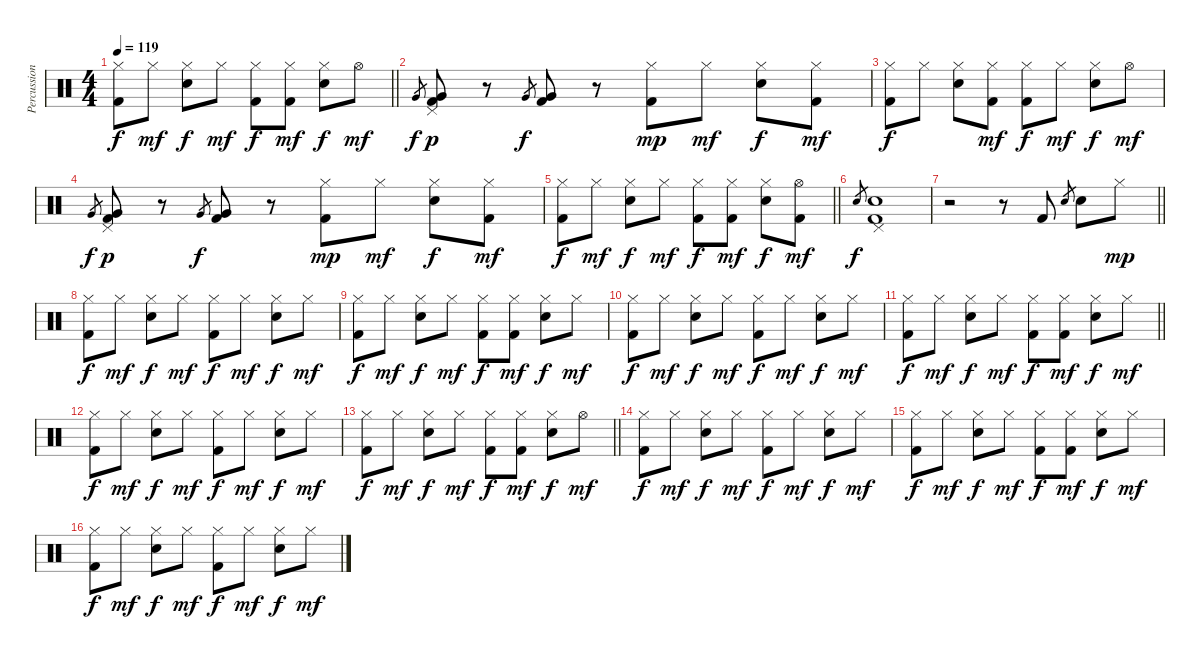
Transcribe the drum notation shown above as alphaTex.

\track ("Percussion" "Percussion") {instrument percussion}
\staff {score}
\articulation defaults
\ts (4 4)
\tempo 119
\clef neutral
\barLineRight lightlight
\ks c
("Hi-Hat (closed)" "Kick (hit) 2").8{dy f} "Hi-Hat (closed)".8{dy mf} ("Hi-Hat (closed)" "Snare (hit) 2").8{dy f} "Hi-Hat (closed)".8{dy mf} ("Hi-Hat (closed)" "Kick (hit) 2").8{dy f} ("Hi-Hat (closed)" "Kick (hit) 2").8{dy mf} ("Hi-Hat (closed)" "Snare (hit) 2").8{dy f} "Hi-Hat (open)".8{dy mf} |
"Very Low Tom (hit)".8{gr dy f} ("Pedal Hi-Hat (hit)" "Very Low Tom (hit)" "Kick (hit) 2").8{dy p} r.8 "Very Low Tom (hit)".8{gr dy f} ("Very Low Tom (hit)" "Kick (hit) 2").8 r.8 ("Hi-Hat (closed)" "Kick (hit) 2").8{dy mp} "Hi-Hat (closed)".8{dy mf} ("Hi-Hat (closed)" "Snare (hit) 2").8{dy f} ("Hi-Hat (closed)" "Kick (hit) 2").8{dy mf} |
("Hi-Hat (closed)" "Kick (hit) 2").8{dy f} "Hi-Hat (closed)".8 ("Hi-Hat (closed)" "Snare (hit) 2").8 ("Hi-Hat (closed)" "Kick (hit) 2").8{dy mf} ("Hi-Hat (closed)" "Kick (hit) 2").8{dy f} "Hi-Hat (closed)".8{dy mf} ("Hi-Hat (closed)" "Snare (hit) 2").8{dy f} "Hi-Hat (open)".8{dy mf} |
"Very Low Tom (hit)".8{gr dy f} ("Pedal Hi-Hat (hit)" "Very Low Tom (hit)" "Kick (hit) 2").8{dy p} r.8 "Very Low Tom (hit)".8{gr dy f} ("Very Low Tom (hit)" "Kick (hit) 2").8 r.8 ("Hi-Hat (closed)" "Kick (hit) 2").8{dy mp} "Hi-Hat (closed)".8{dy mf} ("Hi-Hat (closed)" "Snare (hit) 2").8{dy f} ("Hi-Hat (closed)" "Kick (hit) 2").8{dy mf} |
\barLineRight lightlight
("Hi-Hat (closed)" "Kick (hit) 2").8{dy f} "Hi-Hat (closed)".8{dy mf} ("Hi-Hat (closed)" "Snare (hit) 2").8{dy f} "Hi-Hat (closed)".8{dy mf} ("Hi-Hat (closed)" "Kick (hit) 2").8{dy f} ("Hi-Hat (closed)" "Kick (hit) 2").8{dy mf} ("Hi-Hat (closed)" "Snare (hit) 2").8{dy f} ("Hi-Hat (open)" "Kick (hit) 2").8{dy mf} |
"Snare (hit) 2".8{gr dy f} ("Pedal Hi-Hat (hit)" "Snare (hit) 2" "Kick (hit) 2").1 |
\barLineRight lightlight
r.2 r.8 "Kick (hit) 2".8 "Snare (hit) 2".8{gr} "Snare (hit) 2".8 "Hi-Hat (closed)".8{dy mp} |
("Hi-Hat (closed)" "Kick (hit) 2").8{dy f} "Hi-Hat (closed)".8{dy mf} ("Hi-Hat (closed)" "Snare (hit) 2").8{dy f} "Hi-Hat (closed)".8{dy mf} ("Hi-Hat (closed)" "Kick (hit) 2").8{dy f} "Hi-Hat (closed)".8{dy mf} ("Hi-Hat (closed)" "Snare (hit) 2").8{dy f} "Hi-Hat (closed)".8{dy mf} |
("Hi-Hat (closed)" "Kick (hit) 2").8{dy f} "Hi-Hat (closed)".8{dy mf} ("Hi-Hat (closed)" "Snare (hit) 2").8{dy f} "Hi-Hat (closed)".8{dy mf} ("Hi-Hat (closed)" "Kick (hit) 2").8{dy f} ("Hi-Hat (closed)" "Kick (hit) 2").8{dy mf} ("Hi-Hat (closed)" "Snare (hit) 2").8{dy f} "Hi-Hat (closed)".8{dy mf} |
("Hi-Hat (closed)" "Kick (hit) 2").8{dy f} "Hi-Hat (closed)".8{dy mf} ("Hi-Hat (closed)" "Snare (hit) 2").8{dy f} "Hi-Hat (closed)".8{dy mf} ("Hi-Hat (closed)" "Kick (hit) 2").8{dy f} "Hi-Hat (closed)".8{dy mf} ("Hi-Hat (closed)" "Snare (hit) 2").8{dy f} "Hi-Hat (closed)".8{dy mf} |
\barLineRight lightlight
("Hi-Hat (closed)" "Kick (hit) 2").8{dy f} "Hi-Hat (closed)".8{dy mf} ("Hi-Hat (closed)" "Snare (hit) 2").8{dy f} "Hi-Hat (closed)".8{dy mf} ("Hi-Hat (closed)" "Kick (hit) 2").8{dy f} ("Hi-Hat (closed)" "Kick (hit) 2").8{dy mf} ("Hi-Hat (closed)" "Snare (hit) 2").8{dy f} "Hi-Hat (closed)".8{dy mf} |
("Hi-Hat (closed)" "Kick (hit) 2").8{dy f} "Hi-Hat (closed)".8{dy mf} ("Hi-Hat (closed)" "Snare (hit) 2").8{dy f} "Hi-Hat (closed)".8{dy mf} ("Hi-Hat (closed)" "Kick (hit) 2").8{dy f} "Hi-Hat (closed)".8{dy mf} ("Hi-Hat (closed)" "Snare (hit) 2").8{dy f} "Hi-Hat (closed)".8{dy mf} |
\barLineRight lightlight
("Hi-Hat (closed)" "Kick (hit) 2").8{dy f} "Hi-Hat (closed)".8{dy mf} ("Hi-Hat (closed)" "Snare (hit) 2").8{dy f} "Hi-Hat (closed)".8{dy mf} ("Hi-Hat (closed)" "Kick (hit) 2").8{dy f} ("Hi-Hat (closed)" "Kick (hit) 2").8{dy mf} ("Hi-Hat (closed)" "Snare (hit) 2").8{dy f} "Hi-Hat (open)".8{dy mf} |
("Hi-Hat (closed)" "Kick (hit) 2").8{dy f} "Hi-Hat (closed)".8{dy mf} ("Hi-Hat (closed)" "Snare (hit) 2").8{dy f} "Hi-Hat (closed)".8{dy mf} ("Hi-Hat (closed)" "Kick (hit) 2").8{dy f} "Hi-Hat (closed)".8{dy mf} ("Hi-Hat (closed)" "Snare (hit) 2").8{dy f} "Hi-Hat (closed)".8{dy mf} |
("Hi-Hat (closed)" "Kick (hit) 2").8{dy f} "Hi-Hat (closed)".8{dy mf} ("Hi-Hat (closed)" "Snare (hit) 2").8{dy f} "Hi-Hat (closed)".8{dy mf} ("Hi-Hat (closed)" "Kick (hit) 2").8{dy f} ("Hi-Hat (closed)" "Kick (hit) 2").8{dy mf} ("Hi-Hat (closed)" "Snare (hit) 2").8{dy f} "Hi-Hat (closed)".8{dy mf} |
("Hi-Hat (closed)" "Kick (hit) 2").8{dy f} "Hi-Hat (closed)".8{dy mf} ("Hi-Hat (closed)" "Snare (hit) 2").8{dy f} "Hi-Hat (closed)".8{dy mf} ("Hi-Hat (closed)" "Kick (hit) 2").8{dy f} "Hi-Hat (closed)".8{dy mf} ("Hi-Hat (closed)" "Snare (hit) 2").8{dy f} "Hi-Hat (closed)".8{dy mf}
